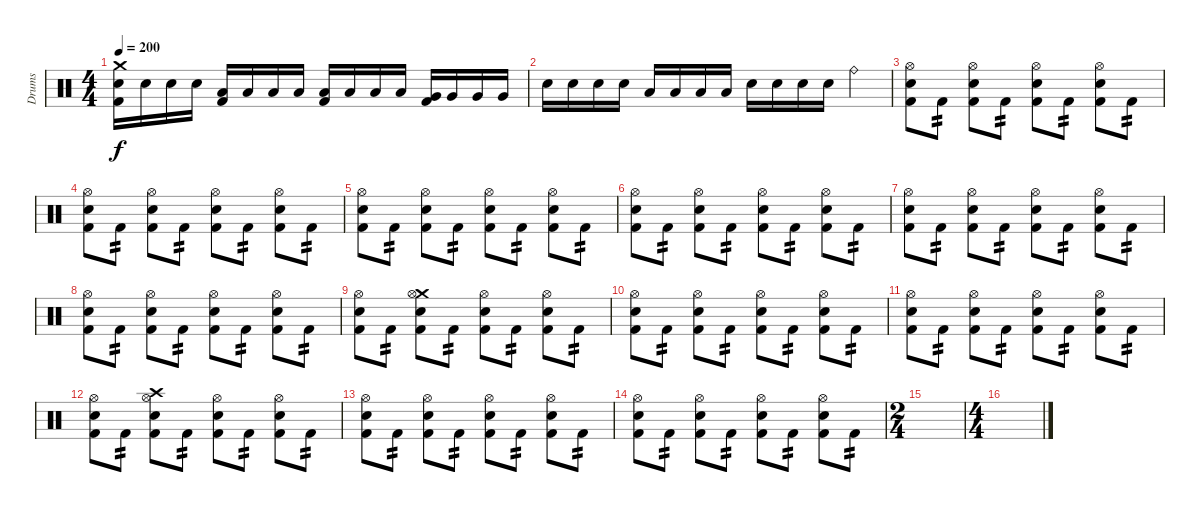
\track ("Drums" "Drums") {instrument percussion}
\staff {score}
\articulation defaults
\ts (4 4)
\tempo 200
\clef neutral
\ks c
("Crash medium (hit)" "Electric Snare (hit)" "Kick (hit) 2").16{dy f} "Electric Snare (hit)".16 "Electric Snare (hit)".16 "Electric Snare (hit)".16 ("Low Tom (hit)" "Kick (hit) 2").16 "Low Tom (hit)".16 "Low Tom (hit)".16 "Low Tom (hit)".16 ("Low Floor Tom (hit)" "Kick (hit) 2").16 "Low Floor Tom (hit)".16 "Low Floor Tom (hit)".16 "Low Floor Tom (hit)".16 ("Very Low Tom (hit)" "Kick (hit) 2").16 "Very Low Tom (hit)".16 "Very Low Tom (hit)".16 "Very Low Tom (hit)".16 |
"Electric Snare (hit)".16 "Electric Snare (hit)".16 "Electric Snare (hit)".16 "Electric Snare (hit)".16 "Low Tom (hit)".16 "Low Tom (hit)".16 "Low Tom (hit)".16 "Low Tom (hit)".16 "Electric Snare (hit)".16 "Electric Snare (hit)".16 "Electric Snare (hit)".16 "Electric Snare (hit)".16 "Ride (bell)".4 |
("Hi-Hat (open)" "Electric Snare (hit)" "Kick (hit) 2").8 "Kick (hit) 2".8{tp 2} ("Hi-Hat (open)" "Electric Snare (hit)" "Kick (hit) 2").8 "Kick (hit) 2".8{tp 2} ("Hi-Hat (open)" "Electric Snare (hit)" "Kick (hit) 2").8 "Kick (hit) 2".8{tp 2} ("Hi-Hat (open)" "Electric Snare (hit)" "Kick (hit) 2").8 "Kick (hit) 2".8{tp 2} |
("Hi-Hat (open)" "Electric Snare (hit)" "Kick (hit) 2").8 "Kick (hit) 2".8{tp 2} ("Hi-Hat (open)" "Electric Snare (hit)" "Kick (hit) 2").8 "Kick (hit) 2".8{tp 2} ("Hi-Hat (open)" "Electric Snare (hit)" "Kick (hit) 2").8 "Kick (hit) 2".8{tp 2} ("Hi-Hat (open)" "Electric Snare (hit)" "Kick (hit) 2").8 "Kick (hit) 2".8{tp 2} |
("Hi-Hat (open)" "Electric Snare (hit)" "Kick (hit) 2").8 "Kick (hit) 2".8{tp 2} ("Hi-Hat (open)" "Electric Snare (hit)" "Kick (hit) 2").8 "Kick (hit) 2".8{tp 2} ("Hi-Hat (open)" "Electric Snare (hit)" "Kick (hit) 2").8 "Kick (hit) 2".8{tp 2} ("Hi-Hat (open)" "Electric Snare (hit)" "Kick (hit) 2").8 "Kick (hit) 2".8{tp 2} |
("Hi-Hat (open)" "Electric Snare (hit)" "Kick (hit) 2").8 "Kick (hit) 2".8{tp 2} ("Hi-Hat (open)" "Electric Snare (hit)" "Kick (hit) 2").8 "Kick (hit) 2".8{tp 2} ("Hi-Hat (open)" "Electric Snare (hit)" "Kick (hit) 2").8 "Kick (hit) 2".8{tp 2} ("Hi-Hat (open)" "Electric Snare (hit)" "Kick (hit) 2").8 "Kick (hit) 2".8{tp 2} |
("Hi-Hat (open)" "Electric Snare (hit)" "Kick (hit) 2").8 "Kick (hit) 2".8{tp 2} ("Hi-Hat (open)" "Electric Snare (hit)" "Kick (hit) 2").8 "Kick (hit) 2".8{tp 2} ("Hi-Hat (open)" "Electric Snare (hit)" "Kick (hit) 2").8 "Kick (hit) 2".8{tp 2} ("Hi-Hat (open)" "Electric Snare (hit)" "Kick (hit) 2").8 "Kick (hit) 2".8{tp 2} |
("Hi-Hat (open)" "Electric Snare (hit)" "Kick (hit) 2").8 "Kick (hit) 2".8{tp 2} ("Hi-Hat (open)" "Electric Snare (hit)" "Kick (hit) 2").8 "Kick (hit) 2".8{tp 2} ("Hi-Hat (open)" "Electric Snare (hit)" "Kick (hit) 2").8 "Kick (hit) 2".8{tp 2} ("Hi-Hat (open)" "Electric Snare (hit)" "Kick (hit) 2").8 "Kick (hit) 2".8{tp 2} |
("Hi-Hat (open)" "Electric Snare (hit)" "Kick (hit) 2").8 "Kick (hit) 2".8{tp 2} ("Crash medium (hit)" "Hi-Hat (open)" "Electric Snare (hit)" "Kick (hit) 2").8 "Kick (hit) 2".8{tp 2} ("Hi-Hat (open)" "Electric Snare (hit)" "Kick (hit) 2").8 "Kick (hit) 2".8{tp 2} ("Hi-Hat (open)" "Electric Snare (hit)" "Kick (hit) 2").8 "Kick (hit) 2".8{tp 2} |
("Hi-Hat (open)" "Electric Snare (hit)" "Kick (hit) 2").8 "Kick (hit) 2".8{tp 2} ("Hi-Hat (open)" "Electric Snare (hit)" "Kick (hit) 2").8 "Kick (hit) 2".8{tp 2} ("Hi-Hat (open)" "Electric Snare (hit)" "Kick (hit) 2").8 "Kick (hit) 2".8{tp 2} ("Hi-Hat (open)" "Electric Snare (hit)" "Kick (hit) 2").8 "Kick (hit) 2".8{tp 2} |
("Hi-Hat (open)" "Electric Snare (hit)" "Kick (hit) 2").8 "Kick (hit) 2".8{tp 2} ("Hi-Hat (open)" "Electric Snare (hit)" "Kick (hit) 2").8 "Kick (hit) 2".8{tp 2} ("Hi-Hat (open)" "Electric Snare (hit)" "Kick (hit) 2").8 "Kick (hit) 2".8{tp 2} ("Hi-Hat (open)" "Electric Snare (hit)" "Kick (hit) 2").8 "Kick (hit) 2".8{tp 2} |
("Hi-Hat (open)" "Electric Snare (hit)" "Kick (hit) 2").8 "Kick (hit) 2".8{tp 2} ("Crash high (hit)" "Hi-Hat (open)" "Electric Snare (hit)" "Kick (hit) 2").8 "Kick (hit) 2".8{tp 2} ("Hi-Hat (open)" "Electric Snare (hit)" "Kick (hit) 2").8 "Kick (hit) 2".8{tp 2} ("Hi-Hat (open)" "Electric Snare (hit)" "Kick (hit) 2").8 "Kick (hit) 2".8{tp 2} |
("Hi-Hat (open)" "Electric Snare (hit)" "Kick (hit) 2").8 "Kick (hit) 2".8{tp 2} ("Hi-Hat (open)" "Electric Snare (hit)" "Kick (hit) 2").8 "Kick (hit) 2".8{tp 2} ("Hi-Hat (open)" "Electric Snare (hit)" "Kick (hit) 2").8 "Kick (hit) 2".8{tp 2} ("Hi-Hat (open)" "Electric Snare (hit)" "Kick (hit) 2").8 "Kick (hit) 2".8{tp 2} |
("Hi-Hat (open)" "Electric Snare (hit)" "Kick (hit) 2").8 "Kick (hit) 2".8{tp 2} ("Hi-Hat (open)" "Electric Snare (hit)" "Kick (hit) 2").8 "Kick (hit) 2".8{tp 2} ("Hi-Hat (open)" "Electric Snare (hit)" "Kick (hit) 2").8 "Kick (hit) 2".8{tp 2} ("Hi-Hat (open)" "Electric Snare (hit)" "Kick (hit) 2").8 "Kick (hit) 2".8{tp 2} |
\ts (2 4)
|
\ts (4 4)
